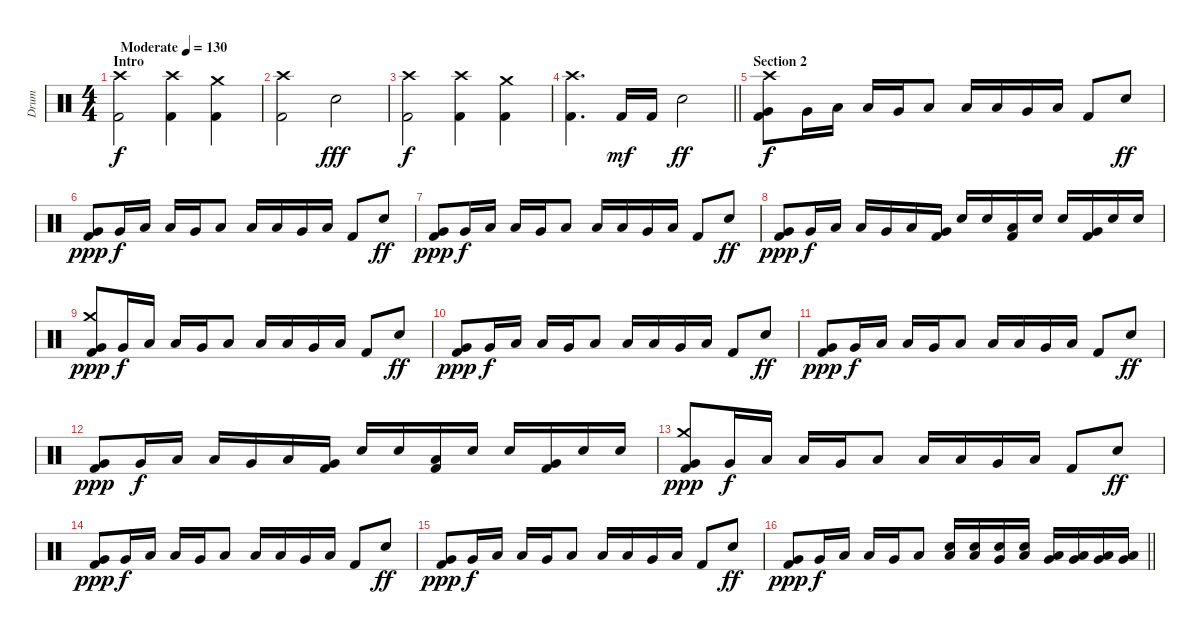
\track ("Drum" "Drum") {instrument percussion}
\staff {score}
\articulation defaults
\ts (4 4)
\section ("" "Intro")
\tempo (130 "Moderate")
\clef neutral
\ks c
("Crash high (hit)" "Kick (hit) 2").2{dy f} ("Kick (hit) 2" "Crash high (hit)").4 ("Kick (hit) 2" "Crash medium (hit)").4 |
("Kick (hit) 2" "Crash high (hit)").2 "Electric Snare (hit)".2{dy fff} |
("Crash high (hit)" "Kick (hit) 2").2{dy f} ("Kick (hit) 2" "Crash high (hit)").4 ("Kick (hit) 2" "Crash medium (hit)").4 |
\barLineRight lightlight
("Kick (hit) 2" "Crash high (hit)").4{d} "Kick (hit) 2".16{dy mf} "Kick (hit) 2".16 "Electric Snare (hit)".2{dy ff} |
\section ("" "Section 2")
("Crash high (hit)" "Very Low Tom (hit)" "Kick (hit) 2").8{dy f} "Very Low Tom (hit)".16 "Low Tom (hit)".16 "Low Tom (hit)".16 "Very Low Tom (hit)".16 "Low Tom (hit)".8 "Low Floor Tom (hit)".16 "Low Tom (hit)".16 "Very Low Tom (hit)".16 "Low Floor Tom (hit)".16 "Kick (hit) 2".8 "Electric Snare (hit)".8{dy ff} |
("Very Low Tom (hit)" "Kick (hit) 2").8{dy ppp} "Very Low Tom (hit)".16{dy f} "Low Tom (hit)".16 "Low Tom (hit)".16 "Very Low Tom (hit)".16 "Low Tom (hit)".8 "Low Floor Tom (hit)".16 "Low Tom (hit)".16 "Very Low Tom (hit)".16 "Low Floor Tom (hit)".16 "Kick (hit) 2".8 "Electric Snare (hit)".8{dy ff} |
("Very Low Tom (hit)" "Kick (hit) 2").8{dy ppp} "Very Low Tom (hit)".16{dy f} "Low Tom (hit)".16 "Low Tom (hit)".16 "Very Low Tom (hit)".16 "Low Tom (hit)".8 "Low Floor Tom (hit)".16 "Low Tom (hit)".16 "Very Low Tom (hit)".16 "Low Floor Tom (hit)".16 "Kick (hit) 2".8 "Electric Snare (hit)".8{dy ff} |
("Very Low Tom (hit)" "Kick (hit) 2").8{dy ppp} "Very Low Tom (hit)".16{dy f} "Low Tom (hit)".16 "Low Tom (hit)".16 "Very Low Tom (hit)".16 "Low Tom (hit)".16 ("Kick (hit) 2" "Very Low Tom (hit)").16 "Electric Snare (hit)".16 "Electric Snare (hit)".16 ("Kick (hit) 2" "Low Floor Tom (hit)").16 "Electric Snare (hit)".16 "Electric Snare (hit)".16 ("Kick (hit) 2" "Very Low Tom (hit)").16 "Electric Snare (hit)".16 "Electric Snare (hit)".16 |
("Crash medium (hit)" "Very Low Tom (hit)" "Kick (hit) 2").8{dy ppp} "Very Low Tom (hit)".16{dy f} "Low Tom (hit)".16 "Low Tom (hit)".16 "Very Low Tom (hit)".16 "Low Tom (hit)".8 "Low Floor Tom (hit)".16 "Low Tom (hit)".16 "Very Low Tom (hit)".16 "Low Floor Tom (hit)".16 "Kick (hit) 2".8 "Electric Snare (hit)".8{dy ff} |
("Very Low Tom (hit)" "Kick (hit) 2").8{dy ppp} "Very Low Tom (hit)".16{dy f} "Low Tom (hit)".16 "Low Tom (hit)".16 "Very Low Tom (hit)".16 "Low Tom (hit)".8 "Low Floor Tom (hit)".16 "Low Tom (hit)".16 "Very Low Tom (hit)".16 "Low Floor Tom (hit)".16 "Kick (hit) 2".8 "Electric Snare (hit)".8{dy ff} |
("Very Low Tom (hit)" "Kick (hit) 2").8{dy ppp} "Very Low Tom (hit)".16{dy f} "Low Tom (hit)".16 "Low Tom (hit)".16 "Very Low Tom (hit)".16 "Low Tom (hit)".8 "Low Floor Tom (hit)".16 "Low Tom (hit)".16 "Very Low Tom (hit)".16 "Low Floor Tom (hit)".16 "Kick (hit) 2".8 "Electric Snare (hit)".8{dy ff} |
("Very Low Tom (hit)" "Kick (hit) 2").8{dy ppp} "Very Low Tom (hit)".16{dy f} "Low Tom (hit)".16 "Low Tom (hit)".16 "Very Low Tom (hit)".16 "Low Tom (hit)".16 ("Kick (hit) 2" "Very Low Tom (hit)").16 "Electric Snare (hit)".16 "Electric Snare (hit)".16 ("Kick (hit) 2" "Low Floor Tom (hit)").16 "Electric Snare (hit)".16 "Electric Snare (hit)".16 ("Kick (hit) 2" "Very Low Tom (hit)").16 "Electric Snare (hit)".16 "Electric Snare (hit)".16 |
("Crash medium (hit)" "Very Low Tom (hit)" "Kick (hit) 2").8{dy ppp} "Very Low Tom (hit)".16{dy f} "Low Tom (hit)".16 "Low Tom (hit)".16 "Very Low Tom (hit)".16 "Low Tom (hit)".8 "Low Floor Tom (hit)".16 "Low Tom (hit)".16 "Very Low Tom (hit)".16 "Low Floor Tom (hit)".16 "Kick (hit) 2".8 "Electric Snare (hit)".8{dy ff} |
("Very Low Tom (hit)" "Kick (hit) 2").8{dy ppp} "Very Low Tom (hit)".16{dy f} "Low Tom (hit)".16 "Low Tom (hit)".16 "Very Low Tom (hit)".16 "Low Tom (hit)".8 "Low Floor Tom (hit)".16 "Low Tom (hit)".16 "Very Low Tom (hit)".16 "Low Floor Tom (hit)".16 "Kick (hit) 2".8 "Electric Snare (hit)".8{dy ff} |
("Very Low Tom (hit)" "Kick (hit) 2").8{dy ppp} "Very Low Tom (hit)".16{dy f} "Low Tom (hit)".16 "Low Tom (hit)".16 "Very Low Tom (hit)".16 "Low Tom (hit)".8 "Low Floor Tom (hit)".16 "Low Tom (hit)".16 "Very Low Tom (hit)".16 "Low Floor Tom (hit)".16 "Kick (hit) 2".8 "Electric Snare (hit)".8{dy ff} |
\barLineRight lightlight
("Very Low Tom (hit)" "Kick (hit) 2").8{dy ppp} "Very Low Tom (hit)".16{dy f} "Low Tom (hit)".16 "Low Tom (hit)".16 "Very Low Tom (hit)".16 "Low Tom (hit)".8 ("Low Floor Tom (hit)" "Electric Snare (hit)").16 ("Low Tom (hit)" "Electric Snare (hit)").16 ("Very Low Tom (hit)" "Electric Snare (hit)").16 ("Low Floor Tom (hit)" "Electric Snare (hit)").16 ("Low Floor Tom (hit)" "Very Low Tom (hit)").16 ("Low Floor Tom (hit)" "Very Low Tom (hit)").16 ("Low Floor Tom (hit)" "Very Low Tom (hit)").16 ("Low Floor Tom (hit)" "Very Low Tom (hit)").16
